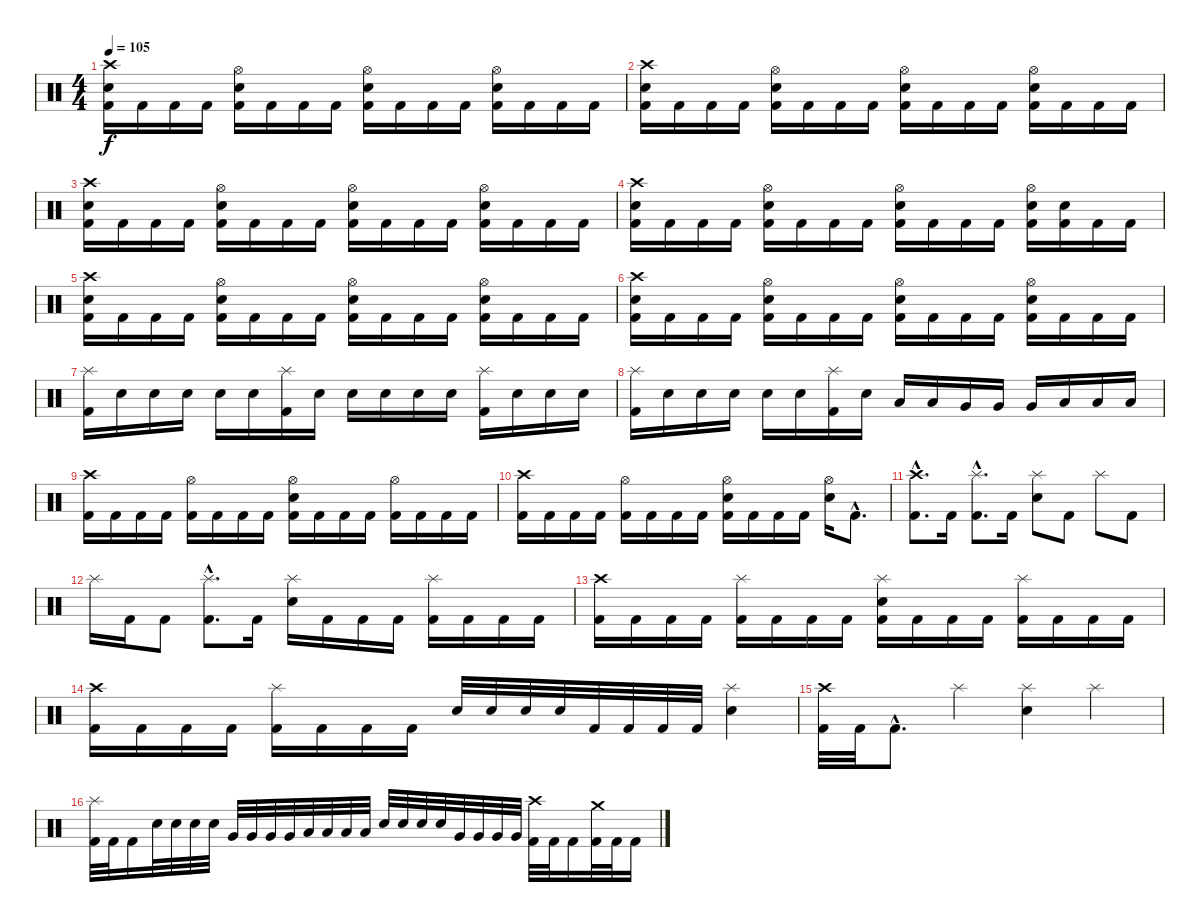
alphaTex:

\track "" {instrument percussion}
\staff {score}
\articulation defaults
\ts (4 4)
\section ("" "")
\tempo 105
\clef neutral
\ks c
("Crash high (hit)" "Electric Snare (hit)" "Kick (hit) 2").16{dy f} "Kick (hit) 2".16 "Kick (hit) 2".16 "Kick (hit) 2".16 ("Hi-Hat (open)" "Electric Snare (hit)" "Kick (hit) 2").16 "Kick (hit) 2".16 "Kick (hit) 2".16 "Kick (hit) 2".16 ("Hi-Hat (open)" "Electric Snare (hit)" "Kick (hit) 2").16 "Kick (hit) 2".16 "Kick (hit) 2".16 "Kick (hit) 2".16 ("Hi-Hat (open)" "Electric Snare (hit)" "Kick (hit) 2").16 "Kick (hit) 2".16 "Kick (hit) 2".16 "Kick (hit) 2".16 |
("Crash high (hit)" "Electric Snare (hit)" "Kick (hit) 2").16 "Kick (hit) 2".16 "Kick (hit) 2".16 "Kick (hit) 2".16 ("Hi-Hat (open)" "Electric Snare (hit)" "Kick (hit) 2").16 "Kick (hit) 2".16 "Kick (hit) 2".16 "Kick (hit) 2".16 ("Hi-Hat (open)" "Electric Snare (hit)" "Kick (hit) 2").16 "Kick (hit) 2".16 "Kick (hit) 2".16 "Kick (hit) 2".16 ("Hi-Hat (open)" "Electric Snare (hit)" "Kick (hit) 2").16 "Kick (hit) 2".16 "Kick (hit) 2".16 "Kick (hit) 2".16 |
("Crash high (hit)" "Electric Snare (hit)" "Kick (hit) 2").16 "Kick (hit) 2".16 "Kick (hit) 2".16 "Kick (hit) 2".16 ("Hi-Hat (open)" "Electric Snare (hit)" "Kick (hit) 2").16 "Kick (hit) 2".16 "Kick (hit) 2".16 "Kick (hit) 2".16 ("Hi-Hat (open)" "Electric Snare (hit)" "Kick (hit) 2").16 "Kick (hit) 2".16 "Kick (hit) 2".16 "Kick (hit) 2".16 ("Hi-Hat (open)" "Electric Snare (hit)" "Kick (hit) 2").16 "Kick (hit) 2".16 "Kick (hit) 2".16 "Kick (hit) 2".16 |
("Crash high (hit)" "Electric Snare (hit)" "Kick (hit) 2").16 "Kick (hit) 2".16 "Kick (hit) 2".16 "Kick (hit) 2".16 ("Hi-Hat (open)" "Electric Snare (hit)" "Kick (hit) 2").16 "Kick (hit) 2".16 "Kick (hit) 2".16 "Kick (hit) 2".16 ("Hi-Hat (open)" "Electric Snare (hit)" "Kick (hit) 2").16 "Kick (hit) 2".16 "Kick (hit) 2".16 "Kick (hit) 2".16 ("Hi-Hat (open)" "Electric Snare (hit)" "Kick (hit) 2").16 ("Electric Snare (hit)" "Kick (hit) 2").16 "Kick (hit) 2".16 "Kick (hit) 2".16 |
("Crash high (hit)" "Electric Snare (hit)" "Kick (hit) 2").16 "Kick (hit) 2".16 "Kick (hit) 2".16 "Kick (hit) 2".16 ("Hi-Hat (open)" "Electric Snare (hit)" "Kick (hit) 2").16 "Kick (hit) 2".16 "Kick (hit) 2".16 "Kick (hit) 2".16 ("Hi-Hat (open)" "Electric Snare (hit)" "Kick (hit) 2").16 "Kick (hit) 2".16 "Kick (hit) 2".16 "Kick (hit) 2".16 ("Hi-Hat (open)" "Electric Snare (hit)" "Kick (hit) 2").16 "Kick (hit) 2".16 "Kick (hit) 2".16 "Kick (hit) 2".16 |
("Crash high (hit)" "Electric Snare (hit)" "Kick (hit) 2").16 "Kick (hit) 2".16 "Kick (hit) 2".16 "Kick (hit) 2".16 ("Hi-Hat (open)" "Electric Snare (hit)" "Kick (hit) 2").16 "Kick (hit) 2".16 "Kick (hit) 2".16 "Kick (hit) 2".16 ("Hi-Hat (open)" "Electric Snare (hit)" "Kick (hit) 2").16 "Kick (hit) 2".16 "Kick (hit) 2".16 "Kick (hit) 2".16 ("Hi-Hat (open)" "Electric Snare (hit)" "Kick (hit) 2").16 "Kick (hit) 2".16 "Kick (hit) 2".16 "Kick (hit) 2".16 |
("Splash (hit)" "Kick (hit) 2").16 "Electric Snare (hit)".16 "Electric Snare (hit)".16 "Electric Snare (hit)".16 "Electric Snare (hit)".16 "Electric Snare (hit)".16 ("Splash (hit)" "Kick (hit) 2").16 "Electric Snare (hit)".16 "Electric Snare (hit)".16 "Electric Snare (hit)".16 "Electric Snare (hit)".16 "Electric Snare (hit)".16 ("Splash (hit)" "Kick (hit) 2").16 "Electric Snare (hit)".16 "Electric Snare (hit)".16 "Electric Snare (hit)".16 |
("Splash (hit)" "Kick (hit) 2").16 "Electric Snare (hit)".16 "Electric Snare (hit)".16 "Electric Snare (hit)".16 "Electric Snare (hit)".16 "Electric Snare (hit)".16 ("Splash (hit)" "Kick (hit) 2").16 "Electric Snare (hit)".16 "Low Tom (hit)".16 "Low Tom (hit)".16 "Very Low Tom (hit)".16 "Very Low Tom (hit)".16 "Very Low Tom (hit)".16 "Low Floor Tom (hit)".16 "Low Floor Tom (hit)".16 "Low Floor Tom (hit)".16 |
("Crash high (hit)" "Kick (hit) 2").16 "Kick (hit) 2".16 "Kick (hit) 2".16 "Kick (hit) 2".16 ("Hi-Hat (open)" "Kick (hit) 2").16 "Kick (hit) 2".16 "Kick (hit) 2".16 "Kick (hit) 2".16 ("Hi-Hat (open)" "Electric Snare (hit)" "Kick (hit) 2").16 "Kick (hit) 2".16 "Kick (hit) 2".16 "Kick (hit) 2".16 ("Hi-Hat (open)" "Kick (hit) 2").16 "Kick (hit) 2".16 "Kick (hit) 2".16 "Kick (hit) 2".16 |
("Crash high (hit)" "Kick (hit) 2").16 "Kick (hit) 2".16 "Kick (hit) 2".16 "Kick (hit) 2".16 ("Hi-Hat (open)" "Kick (hit) 2").16 "Kick (hit) 2".16 "Kick (hit) 2".16 "Kick (hit) 2".16 ("Hi-Hat (open)" "Electric Snare (hit)" "Kick (hit) 2").16 "Kick (hit) 2".16 "Kick (hit) 2".16 "Kick (hit) 2".16 ("Hi-Hat (open)" "Electric Snare (hit)").16 "Kick (hit) 2"{hac}.8{d} |
("Crash high (hit)"{hac} "Kick (hit) 2"{hac}).8{d} "Kick (hit) 2".16 ("Splash (hit)"{hac} "Kick (hit) 2"{hac}).8{d} "Kick (hit) 2".16 ("Splash (hit)" "Electric Snare (hit)").8 "Kick (hit) 2".8 "Splash (hit)".8 "Kick (hit) 2".8 |
"Splash (hit)".16 "Kick (hit) 2".16 "Kick (hit) 2".8 ("Splash (hit)"{hac} "Kick (hit) 2"{hac}).8{d} "Kick (hit) 2".16 ("Splash (hit)" "Electric Snare (hit)").16 "Kick (hit) 2".16 "Kick (hit) 2".16 "Kick (hit) 2".16 ("Splash (hit)" "Kick (hit) 2").16 "Kick (hit) 2".16 "Kick (hit) 2".16 "Kick (hit) 2".16 |
("Crash high (hit)" "Kick (hit) 2").16 "Kick (hit) 2".16 "Kick (hit) 2".16 "Kick (hit) 2".16 ("Splash (hit)" "Kick (hit) 2").16 "Kick (hit) 2".16 "Kick (hit) 2".16 "Kick (hit) 2".16 ("Splash (hit)" "Electric Snare (hit)" "Kick (hit) 2").16 "Kick (hit) 2".16 "Kick (hit) 2".16 "Kick (hit) 2".16 ("Splash (hit)" "Kick (hit) 2").16 "Kick (hit) 2".16 "Kick (hit) 2".16 "Kick (hit) 2".16 |
("Crash high (hit)" "Kick (hit) 2").16 "Kick (hit) 2".16 "Kick (hit) 2".16 "Kick (hit) 2".16 ("Splash (hit)" "Kick (hit) 2").16 "Kick (hit) 2".16 "Kick (hit) 2".16 "Kick (hit) 2".16 "Electric Snare (hit)".32 "Electric Snare (hit)".32 "Electric Snare (hit)".32 "Electric Snare (hit)".32 "Kick (hit) 2".32 "Kick (hit) 2".32 "Kick (hit) 2".32 "Kick (hit) 2".32 ("Splash (hit)" "Electric Snare (hit)").4 |
\section ("" "")
("Crash high (hit)" "Kick (hit) 2").32 "Kick (hit) 2".32 "Kick (hit) 2"{hac}.8{d} "Splash (hit)".4 ("Splash (hit)" "Electric Snare (hit)").4 "Splash (hit)".4 |
("Splash (hit)" "Kick (hit) 2").32 "Kick (hit) 2".32 "Kick (hit) 2".16 "Electric Snare (hit)".32 "Electric Snare (hit)".32 "Electric Snare (hit)".32 "Electric Snare (hit)".32 "Very Low Tom (hit)".32 "Very Low Tom (hit)".32 "Very Low Tom (hit)".32 "Very Low Tom (hit)".32 "Low Tom (hit)".32 "Low Tom (hit)".32 "Low Tom (hit)".32 "Low Tom (hit)".32 "Electric Snare (hit)".32 "Electric Snare (hit)".32 "Electric Snare (hit)".32 "Electric Snare (hit)".32 "Very Low Tom (hit)".32 "Very Low Tom (hit)".32 "Very Low Tom (hit)".32 "Very Low Tom (hit)".32 ("Crash high (hit)" "Kick (hit) 2").32 "Kick (hit) 2".32 "Kick (hit) 2".16 ("Crash medium (hit)" "Kick (hit) 2").32 "Kick (hit) 2".32 "Kick (hit) 2".16
